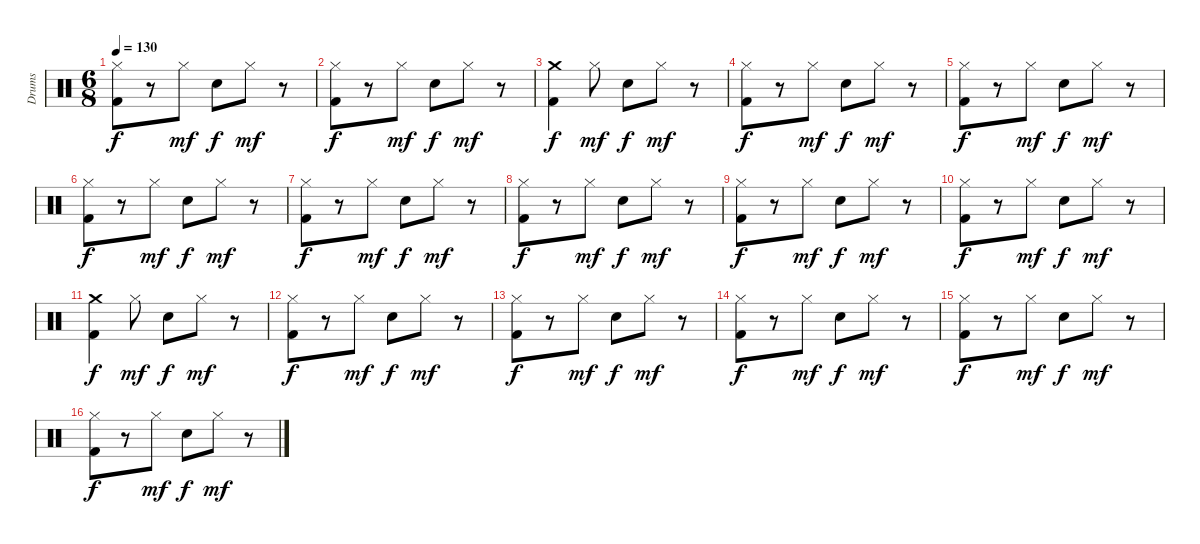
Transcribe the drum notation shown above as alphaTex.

\track ("Drums" "Drums") {instrument percussion}
\staff {score}
\articulation defaults
\ts (6 8)
\tempo 130
\clef neutral
\ks c
("Hi-Hat (closed)" "Kick (hit) 2").8{dy f} r.8 "Hi-Hat (closed)".8{dy mf} "Snare (hit) 2".8{dy f} "Hi-Hat (closed)".8{dy mf} r.8 |
("Hi-Hat (closed)" "Kick (hit) 2").8{dy f} r.8 "Hi-Hat (closed)".8{dy mf} "Snare (hit) 2".8{dy f} "Hi-Hat (closed)".8{dy mf} r.8 |
("Crash medium (hit)" "Kick (hit) 2").4{dy f} "Hi-Hat (closed)".8{dy mf} "Snare (hit) 2".8{dy f} "Hi-Hat (closed)".8{dy mf} r.8 |
("Hi-Hat (closed)" "Kick (hit) 2").8{dy f} r.8 "Hi-Hat (closed)".8{dy mf} "Snare (hit) 2".8{dy f} "Hi-Hat (closed)".8{dy mf} r.8 |
("Hi-Hat (closed)" "Kick (hit) 2").8{dy f} r.8 "Hi-Hat (closed)".8{dy mf} "Snare (hit) 2".8{dy f} "Hi-Hat (closed)".8{dy mf} r.8 |
("Hi-Hat (closed)" "Kick (hit) 2").8{dy f} r.8 "Hi-Hat (closed)".8{dy mf} "Snare (hit) 2".8{dy f} "Hi-Hat (closed)".8{dy mf} r.8 |
("Hi-Hat (closed)" "Kick (hit) 2").8{dy f} r.8 "Hi-Hat (closed)".8{dy mf} "Snare (hit) 2".8{dy f} "Hi-Hat (closed)".8{dy mf} r.8 |
("Hi-Hat (closed)" "Kick (hit) 2").8{dy f} r.8 "Hi-Hat (closed)".8{dy mf} "Snare (hit) 2".8{dy f} "Hi-Hat (closed)".8{dy mf} r.8 |
("Hi-Hat (closed)" "Kick (hit) 2").8{dy f} r.8 "Hi-Hat (closed)".8{dy mf} "Snare (hit) 2".8{dy f} "Hi-Hat (closed)".8{dy mf} r.8 |
("Hi-Hat (closed)" "Kick (hit) 2").8{dy f} r.8 "Hi-Hat (closed)".8{dy mf} "Snare (hit) 2".8{dy f} "Hi-Hat (closed)".8{dy mf} r.8 |
("Crash medium (hit)" "Kick (hit) 2").4{dy f} "Hi-Hat (closed)".8{dy mf} "Snare (hit) 2".8{dy f} "Hi-Hat (closed)".8{dy mf} r.8 |
("Hi-Hat (closed)" "Kick (hit) 2").8{dy f} r.8 "Hi-Hat (closed)".8{dy mf} "Snare (hit) 2".8{dy f} "Hi-Hat (closed)".8{dy mf} r.8 |
("Hi-Hat (closed)" "Kick (hit) 2").8{dy f} r.8 "Hi-Hat (closed)".8{dy mf} "Snare (hit) 2".8{dy f} "Hi-Hat (closed)".8{dy mf} r.8 |
("Hi-Hat (closed)" "Kick (hit) 2").8{dy f} r.8 "Hi-Hat (closed)".8{dy mf} "Snare (hit) 2".8{dy f} "Hi-Hat (closed)".8{dy mf} r.8 |
("Hi-Hat (closed)" "Kick (hit) 2").8{dy f} r.8 "Hi-Hat (closed)".8{dy mf} "Snare (hit) 2".8{dy f} "Hi-Hat (closed)".8{dy mf} r.8 |
("Hi-Hat (closed)" "Kick (hit) 2").8{dy f} r.8 "Hi-Hat (closed)".8{dy mf} "Snare (hit) 2".8{dy f} "Hi-Hat (closed)".8{dy mf} r.8
